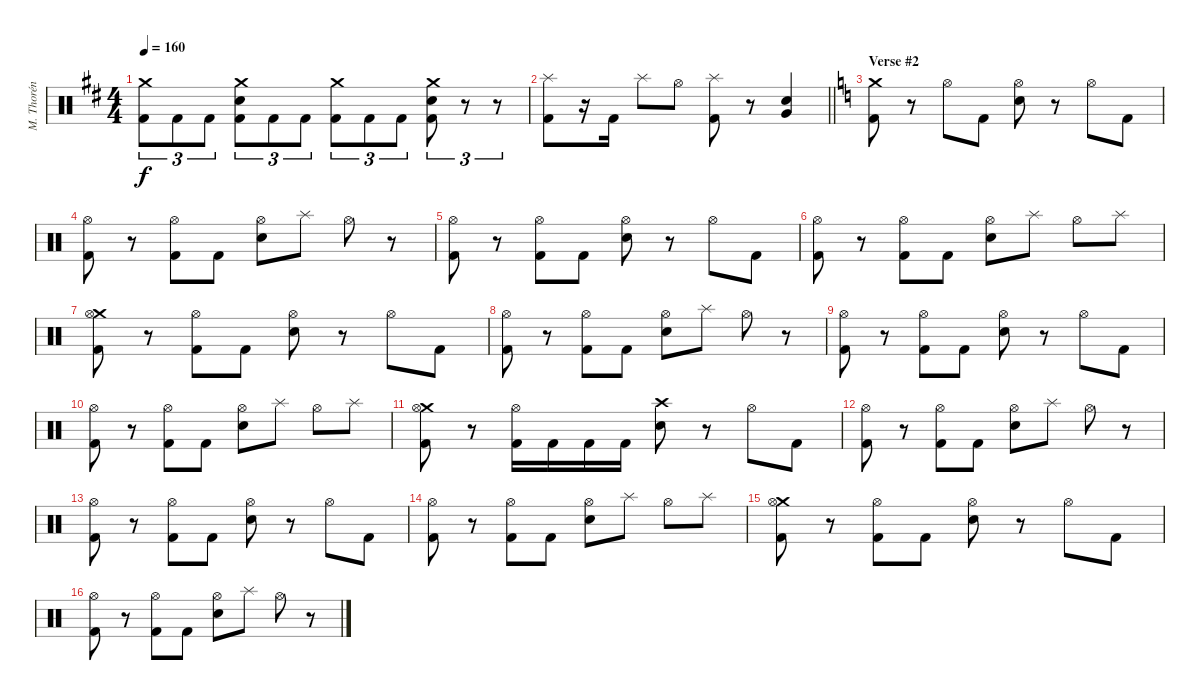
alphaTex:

\track ("M. Thorén (Drums)" "M. Thorén ") {instrument percussion}
\staff {score}
\articulation defaults
\ts (4 4)
\tempo 160
\clef neutral
\ks bminor
("Crash medium (hit)" "Kick (hit) 2").8{tu (3 2) dy f} "Kick (hit) 2".8{tu (3 2)} "Kick (hit) 2".8{tu (3 2)} ("Crash medium (hit)" "Electric Snare (hit)" "Kick (hit) 2").8{tu (3 2)} "Kick (hit) 2".8{tu (3 2)} "Kick (hit) 2".8{tu (3 2)} ("Crash medium (hit)" "Kick (hit) 2").8{tu (3 2)} "Kick (hit) 2".8{tu (3 2)} "Kick (hit) 2".8{tu (3 2)} ("Crash medium (hit)" "Electric Snare (hit)" "Kick (hit) 2").8{tu (3 2)} r.8{tu (3 2)} r.8{tu (3 2)} |
\barLineRight lightlight
("Splash (hit)" "Kick (hit) 2").8 r.16 "Kick (hit) 2".16 "Splash (hit)".8 "Hi-Hat (open)".8 ("Splash (hit)" "Kick (hit) 2").8 r.8 ("Electric Snare (hit)" "Very Low Tom (hit)").4 |
\section ("" "Verse #2")
\ks c
("Crash medium (hit)" "Kick (hit) 2").8 r.8 "Hi-Hat (open)".8 "Kick (hit) 2".8 ("Hi-Hat (open)" "Electric Snare (hit)").8 r.8 "Hi-Hat (open)".8 "Kick (hit) 2".8 |
("Hi-Hat (open)" "Kick (hit) 2").8 r.8 ("Hi-Hat (open)" "Kick (hit) 2").8 "Kick (hit) 2".8 ("Hi-Hat (open)" "Electric Snare (hit)").8 "Splash (hit)".8 "Hi-Hat (open)".8 r.8 |
("Hi-Hat (open)" "Kick (hit) 2").8 r.8 ("Hi-Hat (open)" "Kick (hit) 2").8 "Kick (hit) 2".8 ("Hi-Hat (open)" "Electric Snare (hit)").8 r.8 "Hi-Hat (open)".8 "Kick (hit) 2".8 |
("Hi-Hat (open)" "Kick (hit) 2").8 r.8 ("Hi-Hat (open)" "Kick (hit) 2").8 "Kick (hit) 2".8 ("Hi-Hat (open)" "Electric Snare (hit)").8 "Splash (hit)".8 "Hi-Hat (open)".8 "Splash (hit)".8 |
("Crash medium (hit)" "Hi-Hat (open)" "Kick (hit) 2").8 r.8 ("Hi-Hat (open)" "Kick (hit) 2").8 "Kick (hit) 2".8 ("Hi-Hat (open)" "Electric Snare (hit)").8 r.8 "Hi-Hat (open)".8 "Kick (hit) 2".8 |
("Hi-Hat (open)" "Kick (hit) 2").8 r.8 ("Hi-Hat (open)" "Kick (hit) 2").8 "Kick (hit) 2".8 ("Hi-Hat (open)" "Electric Snare (hit)").8 "Splash (hit)".8 "Hi-Hat (open)".8 r.8 |
("Hi-Hat (open)" "Kick (hit) 2").8 r.8 ("Hi-Hat (open)" "Kick (hit) 2").8 "Kick (hit) 2".8 ("Hi-Hat (open)" "Electric Snare (hit)").8 r.8 "Hi-Hat (open)".8 "Kick (hit) 2".8 |
("Hi-Hat (open)" "Kick (hit) 2").8 r.8 ("Hi-Hat (open)" "Kick (hit) 2").8 "Kick (hit) 2".8 ("Hi-Hat (open)" "Electric Snare (hit)").8 "Splash (hit)".8 "Hi-Hat (open)".8 "Splash (hit)".8 |
("Crash medium (hit)" "Hi-Hat (open)" "Kick (hit) 2").8 r.8 ("Hi-Hat (open)" "Kick (hit) 2").16 "Kick (hit) 2".16 "Kick (hit) 2".16 "Kick (hit) 2".16 ("Crash high (hit)" "Electric Snare (hit)").8 r.8 "Hi-Hat (open)".8 "Kick (hit) 2".8 |
("Hi-Hat (open)" "Kick (hit) 2").8 r.8 ("Hi-Hat (open)" "Kick (hit) 2").8 "Kick (hit) 2".8 ("Hi-Hat (open)" "Electric Snare (hit)").8 "Splash (hit)".8 "Hi-Hat (open)".8 r.8 |
("Hi-Hat (open)" "Kick (hit) 2").8 r.8 ("Hi-Hat (open)" "Kick (hit) 2").8 "Kick (hit) 2".8 ("Hi-Hat (open)" "Electric Snare (hit)").8 r.8 "Hi-Hat (open)".8 "Kick (hit) 2".8 |
("Hi-Hat (open)" "Kick (hit) 2").8 r.8 ("Hi-Hat (open)" "Kick (hit) 2").8 "Kick (hit) 2".8 ("Hi-Hat (open)" "Electric Snare (hit)").8 "Splash (hit)".8 "Hi-Hat (open)".8 "Splash (hit)".8 |
("Crash medium (hit)" "Hi-Hat (open)" "Kick (hit) 2").8 r.8 ("Hi-Hat (open)" "Kick (hit) 2").8 "Kick (hit) 2".8 ("Hi-Hat (open)" "Electric Snare (hit)").8 r.8 "Hi-Hat (open)".8 "Kick (hit) 2".8 |
("Hi-Hat (open)" "Kick (hit) 2").8 r.8 ("Hi-Hat (open)" "Kick (hit) 2").8 "Kick (hit) 2".8 ("Hi-Hat (open)" "Electric Snare (hit)").8 "Splash (hit)".8 "Hi-Hat (open)".8 r.8
